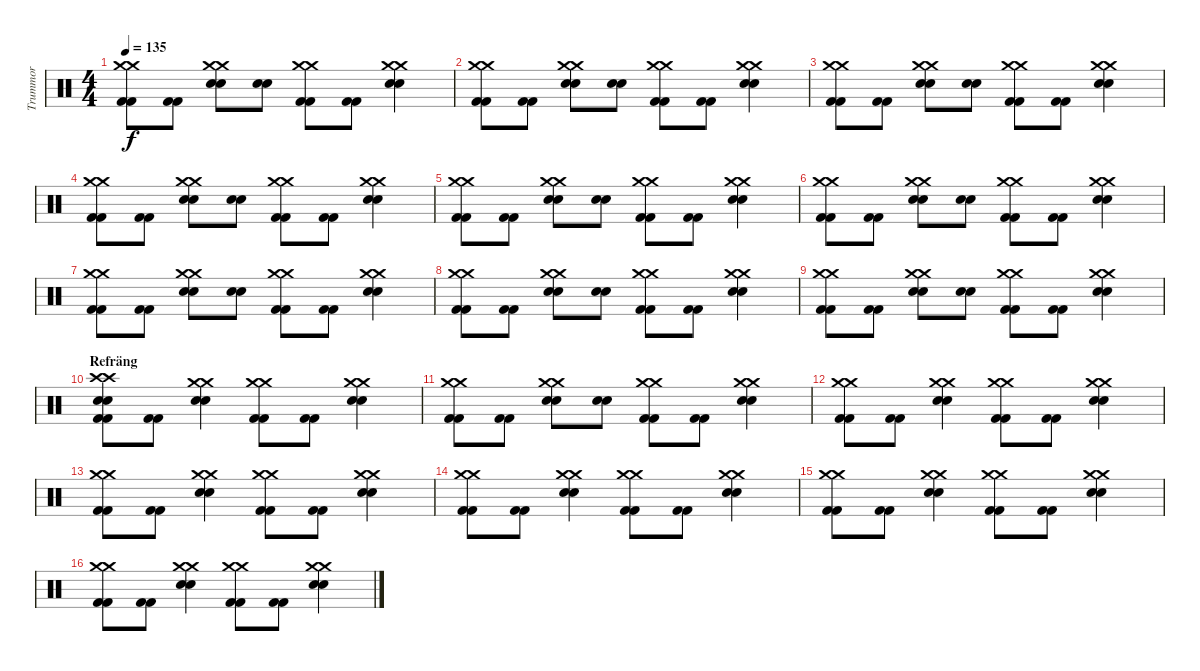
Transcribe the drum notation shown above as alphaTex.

\track ("Trummor" "Trummor") {instrument percussion}
\staff {score}
\articulation defaults
\ts (4 4)
\tempo 135
\clef neutral
\ks c
("Crash medium (hit)" "Crash medium (hit)" "Kick (hit) 2" "Kick (hit) 2").8{dy f} ("Kick (hit) 2" "Kick (hit) 2").8 ("Crash medium (hit)" "Crash medium (hit)" "Snare (hit) 2" "Snare (hit) 2").8 ("Snare (hit) 2" "Snare (hit) 2").8 ("Crash medium (hit)" "Crash medium (hit)" "Kick (hit) 2" "Kick (hit) 2").8 ("Kick (hit) 2" "Kick (hit) 2").8 ("Crash medium (hit)" "Crash medium (hit)" "Snare (hit) 2" "Snare (hit) 2").4 |
("Crash medium (hit)" "Crash medium (hit)" "Kick (hit) 2" "Kick (hit) 2").8 ("Kick (hit) 2" "Kick (hit) 2").8 ("Crash medium (hit)" "Crash medium (hit)" "Snare (hit) 2" "Snare (hit) 2").8 ("Snare (hit) 2" "Snare (hit) 2").8 ("Crash medium (hit)" "Crash medium (hit)" "Kick (hit) 2" "Kick (hit) 2").8 ("Kick (hit) 2" "Kick (hit) 2").8 ("Crash medium (hit)" "Crash medium (hit)" "Snare (hit) 2" "Snare (hit) 2").4 |
("Crash medium (hit)" "Crash medium (hit)" "Kick (hit) 2" "Kick (hit) 2").8 ("Kick (hit) 2" "Kick (hit) 2").8 ("Crash medium (hit)" "Crash medium (hit)" "Snare (hit) 2" "Snare (hit) 2").8 ("Snare (hit) 2" "Snare (hit) 2").8 ("Crash medium (hit)" "Crash medium (hit)" "Kick (hit) 2" "Kick (hit) 2").8 ("Kick (hit) 2" "Kick (hit) 2").8 ("Crash medium (hit)" "Crash medium (hit)" "Snare (hit) 2" "Snare (hit) 2").4 |
("Crash medium (hit)" "Crash medium (hit)" "Kick (hit) 2" "Kick (hit) 2").8 ("Kick (hit) 2" "Kick (hit) 2").8 ("Crash medium (hit)" "Crash medium (hit)" "Snare (hit) 2" "Snare (hit) 2").8 ("Snare (hit) 2" "Snare (hit) 2").8 ("Crash medium (hit)" "Crash medium (hit)" "Kick (hit) 2" "Kick (hit) 2").8 ("Kick (hit) 2" "Kick (hit) 2").8 ("Crash medium (hit)" "Crash medium (hit)" "Snare (hit) 2" "Snare (hit) 2").4 |
("Crash medium (hit)" "Crash medium (hit)" "Kick (hit) 2" "Kick (hit) 2").8 ("Kick (hit) 2" "Kick (hit) 2").8 ("Crash medium (hit)" "Crash medium (hit)" "Snare (hit) 2" "Snare (hit) 2").8 ("Snare (hit) 2" "Snare (hit) 2").8 ("Crash medium (hit)" "Crash medium (hit)" "Kick (hit) 2" "Kick (hit) 2").8 ("Kick (hit) 2" "Kick (hit) 2").8 ("Crash medium (hit)" "Crash medium (hit)" "Snare (hit) 2" "Snare (hit) 2").4 |
("Crash medium (hit)" "Crash medium (hit)" "Kick (hit) 2" "Kick (hit) 2").8 ("Kick (hit) 2" "Kick (hit) 2").8 ("Crash medium (hit)" "Crash medium (hit)" "Snare (hit) 2" "Snare (hit) 2").8 ("Snare (hit) 2" "Snare (hit) 2").8 ("Crash medium (hit)" "Crash medium (hit)" "Kick (hit) 2" "Kick (hit) 2").8 ("Kick (hit) 2" "Kick (hit) 2").8 ("Crash medium (hit)" "Crash medium (hit)" "Snare (hit) 2" "Snare (hit) 2").4 |
("Crash medium (hit)" "Crash medium (hit)" "Kick (hit) 2" "Kick (hit) 2").8 ("Kick (hit) 2" "Kick (hit) 2").8 ("Crash medium (hit)" "Crash medium (hit)" "Snare (hit) 2" "Snare (hit) 2").8 ("Snare (hit) 2" "Snare (hit) 2").8 ("Crash medium (hit)" "Crash medium (hit)" "Kick (hit) 2" "Kick (hit) 2").8 ("Kick (hit) 2" "Kick (hit) 2").8 ("Crash medium (hit)" "Crash medium (hit)" "Snare (hit) 2" "Snare (hit) 2").4 |
("Crash medium (hit)" "Crash medium (hit)" "Kick (hit) 2" "Kick (hit) 2").8 ("Kick (hit) 2" "Kick (hit) 2").8 ("Crash medium (hit)" "Crash medium (hit)" "Snare (hit) 2" "Snare (hit) 2").8 ("Snare (hit) 2" "Snare (hit) 2").8 ("Crash medium (hit)" "Crash medium (hit)" "Kick (hit) 2" "Kick (hit) 2").8 ("Kick (hit) 2" "Kick (hit) 2").8 ("Crash medium (hit)" "Crash medium (hit)" "Snare (hit) 2" "Snare (hit) 2").4 |
("Crash medium (hit)" "Crash medium (hit)" "Kick (hit) 2" "Kick (hit) 2").8 ("Kick (hit) 2" "Kick (hit) 2").8 ("Crash medium (hit)" "Crash medium (hit)" "Snare (hit) 2" "Snare (hit) 2").8 ("Snare (hit) 2" "Snare (hit) 2").8 ("Crash medium (hit)" "Crash medium (hit)" "Kick (hit) 2" "Kick (hit) 2").8 ("Kick (hit) 2" "Kick (hit) 2").8 ("Crash medium (hit)" "Crash medium (hit)" "Snare (hit) 2" "Snare (hit) 2").4 |
\section ("" "Refräng")
("Crash high (hit)" "Crash high (hit)" "Snare (hit) 2" "Snare (hit) 2" "Kick (hit) 2" "Kick (hit) 2").8 ("Kick (hit) 2" "Kick (hit) 2").8 ("Crash medium (hit)" "Crash medium (hit)" "Snare (hit) 2" "Snare (hit) 2").4 ("Crash medium (hit)" "Crash medium (hit)" "Kick (hit) 2" "Kick (hit) 2").8 ("Kick (hit) 2" "Kick (hit) 2").8 ("Crash medium (hit)" "Crash medium (hit)" "Snare (hit) 2" "Snare (hit) 2").4 |
("Crash medium (hit)" "Crash medium (hit)" "Kick (hit) 2" "Kick (hit) 2").8 ("Kick (hit) 2" "Kick (hit) 2").8 ("Crash medium (hit)" "Crash medium (hit)" "Snare (hit) 2" "Snare (hit) 2").8 ("Snare (hit) 2" "Snare (hit) 2").8 ("Crash medium (hit)" "Crash medium (hit)" "Kick (hit) 2" "Kick (hit) 2").8 ("Kick (hit) 2" "Kick (hit) 2").8 ("Crash medium (hit)" "Crash medium (hit)" "Snare (hit) 2" "Snare (hit) 2").4 |
("Crash medium (hit)" "Crash medium (hit)" "Kick (hit) 2" "Kick (hit) 2").8 ("Kick (hit) 2" "Kick (hit) 2").8 ("Crash medium (hit)" "Crash medium (hit)" "Snare (hit) 2" "Snare (hit) 2").4 ("Crash medium (hit)" "Crash medium (hit)" "Kick (hit) 2" "Kick (hit) 2").8 ("Kick (hit) 2" "Kick (hit) 2").8 ("Crash medium (hit)" "Crash medium (hit)" "Snare (hit) 2" "Snare (hit) 2").4 |
("Crash medium (hit)" "Crash medium (hit)" "Kick (hit) 2" "Kick (hit) 2").8 ("Kick (hit) 2" "Kick (hit) 2").8 ("Crash medium (hit)" "Crash medium (hit)" "Snare (hit) 2" "Snare (hit) 2").4 ("Crash medium (hit)" "Crash medium (hit)" "Kick (hit) 2" "Kick (hit) 2").8 ("Kick (hit) 2" "Kick (hit) 2").8 ("Crash medium (hit)" "Crash medium (hit)" "Snare (hit) 2" "Snare (hit) 2").4 |
("Crash medium (hit)" "Crash medium (hit)" "Kick (hit) 2" "Kick (hit) 2").8 ("Kick (hit) 2" "Kick (hit) 2").8 ("Crash medium (hit)" "Crash medium (hit)" "Snare (hit) 2" "Snare (hit) 2").4 ("Crash medium (hit)" "Crash medium (hit)" "Kick (hit) 2" "Kick (hit) 2").8 ("Kick (hit) 2" "Kick (hit) 2").8 ("Crash medium (hit)" "Crash medium (hit)" "Snare (hit) 2" "Snare (hit) 2").4 |
("Crash medium (hit)" "Crash medium (hit)" "Kick (hit) 2" "Kick (hit) 2").8 ("Kick (hit) 2" "Kick (hit) 2").8 ("Crash medium (hit)" "Crash medium (hit)" "Snare (hit) 2" "Snare (hit) 2").4 ("Crash medium (hit)" "Crash medium (hit)" "Kick (hit) 2" "Kick (hit) 2").8 ("Kick (hit) 2" "Kick (hit) 2").8 ("Crash medium (hit)" "Crash medium (hit)" "Snare (hit) 2" "Snare (hit) 2").4 |
("Crash medium (hit)" "Crash medium (hit)" "Kick (hit) 2" "Kick (hit) 2").8 ("Kick (hit) 2" "Kick (hit) 2").8 ("Crash medium (hit)" "Crash medium (hit)" "Snare (hit) 2" "Snare (hit) 2").4 ("Crash medium (hit)" "Crash medium (hit)" "Kick (hit) 2" "Kick (hit) 2").8 ("Kick (hit) 2" "Kick (hit) 2").8 ("Crash medium (hit)" "Crash medium (hit)" "Snare (hit) 2" "Snare (hit) 2").4
